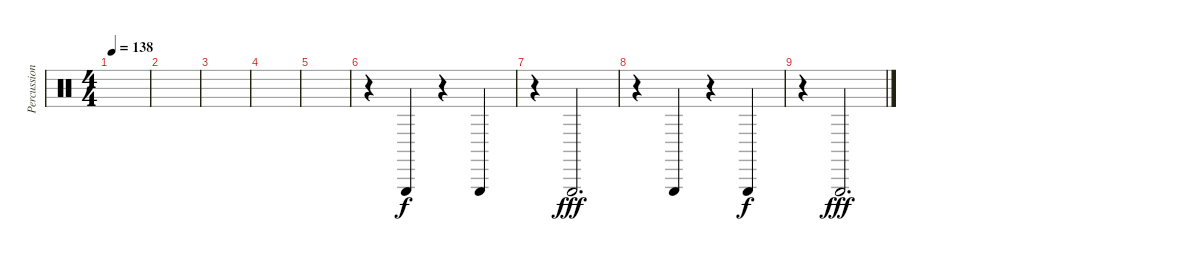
\track ("Percussion" "Percussion") {instrument percussion}
\staff {score}
\articulation defaults
\ts (4 4)
\tempo 138
\clef neutral
\ks c
|
|
|
|
|
r.4 "Triangle (hit)".4 r.4 "Triangle (hit)".4{dy f} |
r.4 "Triangle (hit)".2{d dy fff} |
r.4 "Triangle (hit)".4 r.4 "Triangle (hit)".4{dy f} |
r.4 "Triangle (hit)".2{d dy fff}
